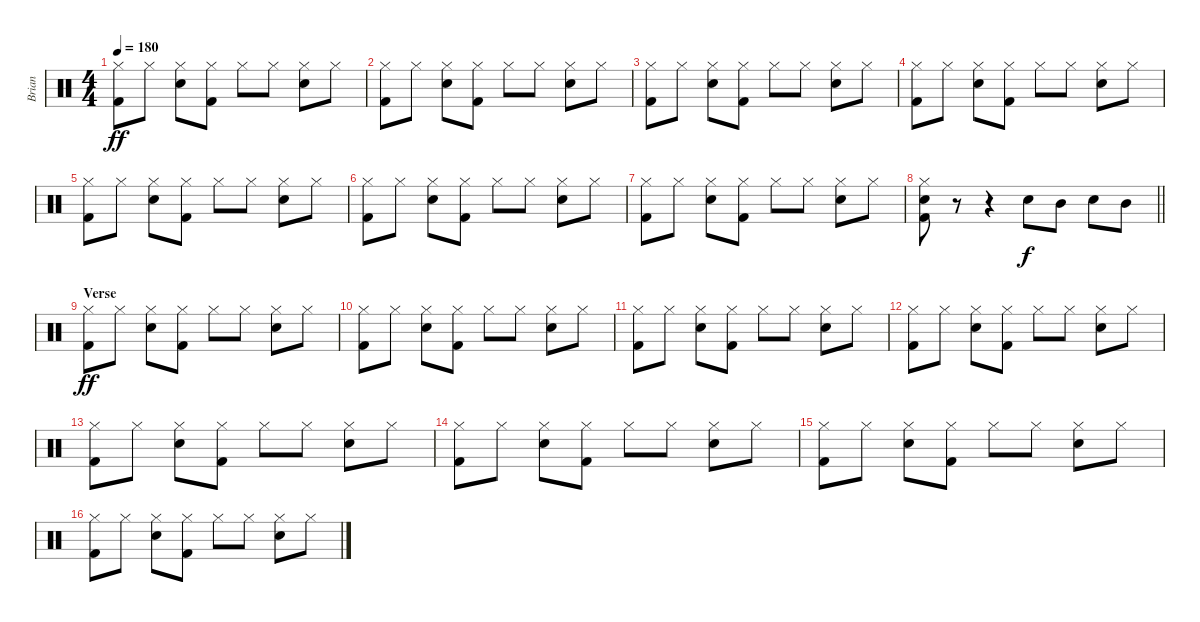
\track ("Brian" "Brian") {instrument percussion}
\staff {score}
\articulation defaults
\ts (4 4)
\tempo 180
\clef neutral
\ks c
("Hi-Hat (closed)" "Kick (hit) 2").8{dy ff} "Hi-Hat (closed)".8 ("Hi-Hat (closed)" "Snare (hit) 2").8 ("Hi-Hat (closed)" "Kick (hit) 2").8 "Hi-Hat (closed)".8 "Hi-Hat (closed)".8 ("Hi-Hat (closed)" "Snare (hit) 2").8 "Hi-Hat (closed)".8 |
("Hi-Hat (closed)" "Kick (hit) 2").8 "Hi-Hat (closed)".8 ("Hi-Hat (closed)" "Snare (hit) 2").8 ("Hi-Hat (closed)" "Kick (hit) 2").8 "Hi-Hat (closed)".8 "Hi-Hat (closed)".8 ("Hi-Hat (closed)" "Snare (hit) 2").8 "Hi-Hat (closed)".8 |
("Hi-Hat (closed)" "Kick (hit) 2").8 "Hi-Hat (closed)".8 ("Hi-Hat (closed)" "Snare (hit) 2").8 ("Hi-Hat (closed)" "Kick (hit) 2").8 "Hi-Hat (closed)".8 "Hi-Hat (closed)".8 ("Hi-Hat (closed)" "Snare (hit) 2").8 "Hi-Hat (closed)".8 |
("Hi-Hat (closed)" "Kick (hit) 2").8 "Hi-Hat (closed)".8 ("Hi-Hat (closed)" "Snare (hit) 2").8 ("Hi-Hat (closed)" "Kick (hit) 2").8 "Hi-Hat (closed)".8 "Hi-Hat (closed)".8 ("Hi-Hat (closed)" "Snare (hit) 2").8 "Hi-Hat (closed)".8 |
("Hi-Hat (closed)" "Kick (hit) 2").8 "Hi-Hat (closed)".8 ("Hi-Hat (closed)" "Snare (hit) 2").8 ("Hi-Hat (closed)" "Kick (hit) 2").8 "Hi-Hat (closed)".8 "Hi-Hat (closed)".8 ("Hi-Hat (closed)" "Snare (hit) 2").8 "Hi-Hat (closed)".8 |
("Hi-Hat (closed)" "Kick (hit) 2").8 "Hi-Hat (closed)".8 ("Hi-Hat (closed)" "Snare (hit) 2").8 ("Hi-Hat (closed)" "Kick (hit) 2").8 "Hi-Hat (closed)".8 "Hi-Hat (closed)".8 ("Hi-Hat (closed)" "Snare (hit) 2").8 "Hi-Hat (closed)".8 |
("Hi-Hat (closed)" "Kick (hit) 2").8 "Hi-Hat (closed)".8 ("Hi-Hat (closed)" "Snare (hit) 2").8 ("Hi-Hat (closed)" "Kick (hit) 2").8 "Hi-Hat (closed)".8 "Hi-Hat (closed)".8 ("Hi-Hat (closed)" "Snare (hit) 2").8 "Hi-Hat (closed)".8 |
\barLineRight lightlight
("Hi-Hat (closed)" "Snare (hit) 2" "Kick (hit) 2").8 r.8 r.4 "Snare (hit) 2".8{dy f} "Mid Tom (hit)".8 "Snare (hit) 2".8 "Mid Tom (hit)".8 |
\section ("" "Verse")
("Hi-Hat (closed)" "Kick (hit) 2").8{dy ff} "Hi-Hat (closed)".8 ("Hi-Hat (closed)" "Snare (hit) 2").8 ("Hi-Hat (closed)" "Kick (hit) 2").8 "Hi-Hat (closed)".8 "Hi-Hat (closed)".8 ("Hi-Hat (closed)" "Snare (hit) 2").8 "Hi-Hat (closed)".8 |
("Hi-Hat (closed)" "Kick (hit) 2").8 "Hi-Hat (closed)".8 ("Hi-Hat (closed)" "Snare (hit) 2").8 ("Hi-Hat (closed)" "Kick (hit) 2").8 "Hi-Hat (closed)".8 "Hi-Hat (closed)".8 ("Hi-Hat (closed)" "Snare (hit) 2").8 "Hi-Hat (closed)".8 |
("Hi-Hat (closed)" "Kick (hit) 2").8 "Hi-Hat (closed)".8 ("Hi-Hat (closed)" "Snare (hit) 2").8 ("Hi-Hat (closed)" "Kick (hit) 2").8 "Hi-Hat (closed)".8 "Hi-Hat (closed)".8 ("Hi-Hat (closed)" "Snare (hit) 2").8 "Hi-Hat (closed)".8 |
("Hi-Hat (closed)" "Kick (hit) 2").8 "Hi-Hat (closed)".8 ("Hi-Hat (closed)" "Snare (hit) 2").8 ("Hi-Hat (closed)" "Kick (hit) 2").8 "Hi-Hat (closed)".8 "Hi-Hat (closed)".8 ("Hi-Hat (closed)" "Snare (hit) 2").8 "Hi-Hat (closed)".8 |
("Hi-Hat (closed)" "Kick (hit) 2").8 "Hi-Hat (closed)".8 ("Hi-Hat (closed)" "Snare (hit) 2").8 ("Hi-Hat (closed)" "Kick (hit) 2").8 "Hi-Hat (closed)".8 "Hi-Hat (closed)".8 ("Hi-Hat (closed)" "Snare (hit) 2").8 "Hi-Hat (closed)".8 |
("Hi-Hat (closed)" "Kick (hit) 2").8 "Hi-Hat (closed)".8 ("Hi-Hat (closed)" "Snare (hit) 2").8 ("Hi-Hat (closed)" "Kick (hit) 2").8 "Hi-Hat (closed)".8 "Hi-Hat (closed)".8 ("Hi-Hat (closed)" "Snare (hit) 2").8 "Hi-Hat (closed)".8 |
("Hi-Hat (closed)" "Kick (hit) 2").8 "Hi-Hat (closed)".8 ("Hi-Hat (closed)" "Snare (hit) 2").8 ("Hi-Hat (closed)" "Kick (hit) 2").8 "Hi-Hat (closed)".8 "Hi-Hat (closed)".8 ("Hi-Hat (closed)" "Snare (hit) 2").8 "Hi-Hat (closed)".8 |
("Hi-Hat (closed)" "Kick (hit) 2").8 "Hi-Hat (closed)".8 ("Hi-Hat (closed)" "Snare (hit) 2").8 ("Hi-Hat (closed)" "Kick (hit) 2").8 "Hi-Hat (closed)".8 "Hi-Hat (closed)".8 ("Hi-Hat (closed)" "Snare (hit) 2").8 "Hi-Hat (closed)".8
